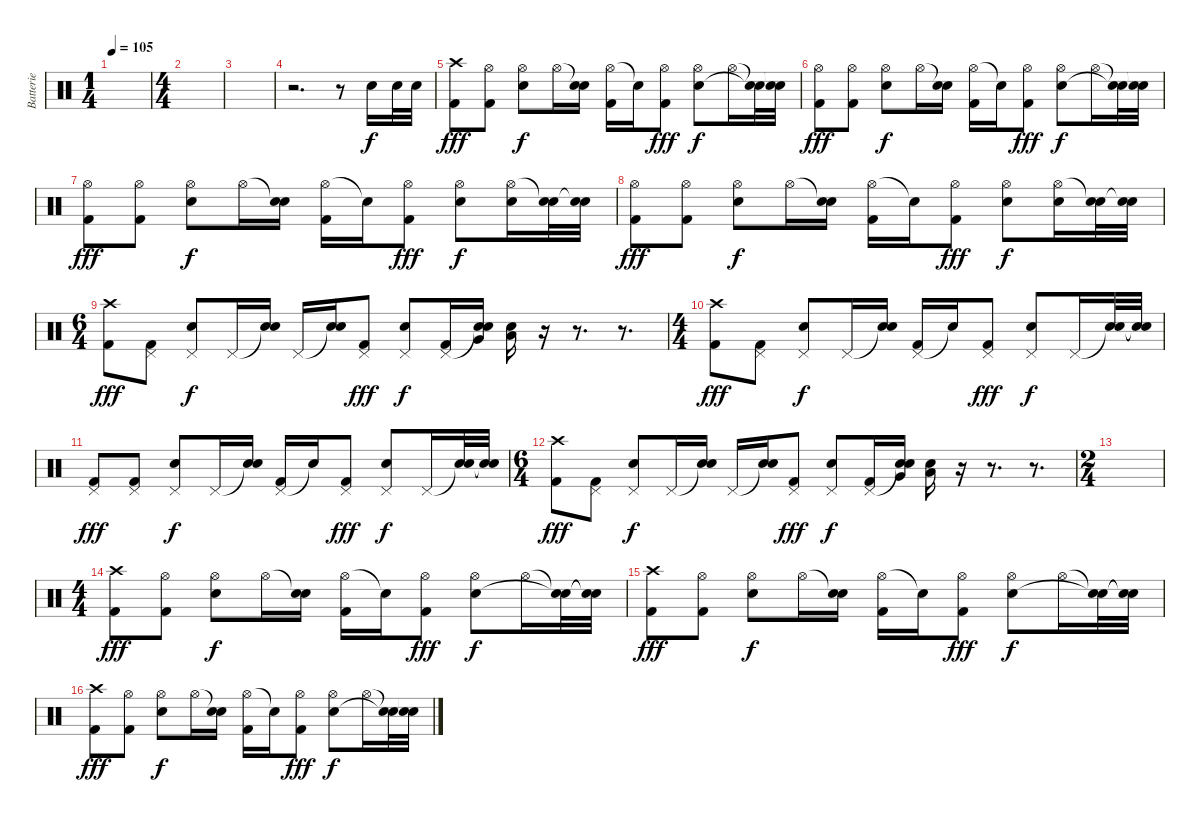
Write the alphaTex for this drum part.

\track ("Batterie" "Batterie") {instrument percussion}
\staff {score}
\articulation defaults
\ts (1 4)
\tempo 105
\clef neutral
\ks c
|
\ts (4 4)
|
|
r.2{d} r.8 "Electric Snare (hit)".16 "Electric Snare (hit)".32 "Electric Snare (hit)".32 |
("Crash high (hit)" "Kick (hit) 2").8{dy fff} ("Hi-Hat (open)" "Kick (hit) 2").8 ("Hi-Hat (open)" "Electric Snare (hit)").8{dy f} "Hi-Hat (open)".16 ("Snare (hit)"{t} "Electric Snare (hit)").16 ("Hi-Hat (open)" "Kick (hit) 2").16 "Snare (hit)"{t}.16 ("Hi-Hat (open)" "Kick (hit) 2").8{dy fff} ("Hi-Hat (open)" "Electric Snare (hit)").8{dy f} "Hi-Hat (open)".16 ("Snare (hit)"{t} "Snare (hit) 2"{t}).32 ("Snare (hit)"{t} "Snare (hit) 2"{t}).32 |
("Hi-Hat (open)" "Kick (hit) 2").8{dy fff} ("Hi-Hat (open)" "Kick (hit) 2").8 ("Hi-Hat (open)" "Electric Snare (hit)").8{dy f} "Hi-Hat (open)".16 ("Snare (hit)"{t} "Electric Snare (hit)").16 ("Hi-Hat (open)" "Kick (hit) 2").16 "Snare (hit)"{t}.16 ("Hi-Hat (open)" "Kick (hit) 2").8{dy fff} ("Hi-Hat (open)" "Electric Snare (hit)").8{dy f} "Hi-Hat (open)".16 ("Snare (hit)"{t} "Snare (hit) 2"{t}).32 ("Snare (hit)"{t} "Snare (hit) 2"{t}).32 |
("Hi-Hat (open)" "Kick (hit) 2").8{dy fff} ("Hi-Hat (open)" "Kick (hit) 2").8 ("Hi-Hat (open)" "Electric Snare (hit)").8{dy f} "Hi-Hat (open)".16 ("Snare (hit)"{t} "Electric Snare (hit)").16 ("Hi-Hat (open)" "Kick (hit) 2").16 "Snare (hit)"{t}.16 ("Hi-Hat (open)" "Kick (hit) 2").8{dy fff} ("Hi-Hat (open)" "Electric Snare (hit)").8{dy f} ("Hi-Hat (open)" "Electric Snare (hit)").16 ("Snare (hit)"{t} "Electric Snare (hit)").32 ("Snare (hit)"{t} "Electric Snare (hit)").32 |
("Hi-Hat (open)" "Kick (hit) 2").8{dy fff} ("Hi-Hat (open)" "Kick (hit) 2").8 ("Hi-Hat (open)" "Electric Snare (hit)").8{dy f} "Hi-Hat (open)".16 ("Snare (hit)"{t} "Electric Snare (hit)").16 ("Hi-Hat (open)" "Kick (hit) 2").16 "Snare (hit)"{t}.16 ("Hi-Hat (open)" "Kick (hit) 2").8{dy fff} ("Hi-Hat (open)" "Electric Snare (hit)").8{dy f} ("Hi-Hat (open)" "Electric Snare (hit)").16 ("Snare (hit)"{t} "Electric Snare (hit)").32 ("Snare (hit)"{t} "Electric Snare (hit)").32 |
\ts (6 4)
("Crash high (hit)" "Kick (hit) 2").8{dy fff} ("Pedal Hi-Hat (hit)" "Kick (hit) 2").8 ("Pedal Hi-Hat (hit)" "Electric Snare (hit)").8{dy f} "Pedal Hi-Hat (hit)".16 ("Snare (hit)"{t} "Electric Snare (hit)").16 "Pedal Hi-Hat (hit)".16 ("Snare (hit)"{t} "Electric Snare (hit)").16 ("Pedal Hi-Hat (hit)" "Kick (hit) 2").8{dy fff} ("Pedal Hi-Hat (hit)" "Electric Snare (hit)").8{dy f} ("Pedal Hi-Hat (hit)" "Kick (hit) 2").16 ("Electric Snare (hit)"{t} "Electric Snare (hit)" "Very Low Tom (hit)").16 ("Electric Snare (hit)" "Low Tom (hit)").16 r.16 r.8{d} r.8{d} |
\ts (4 4)
("Crash high (hit)" "Kick (hit) 2").8{dy fff} ("Pedal Hi-Hat (hit)" "Kick (hit) 2").8 ("Pedal Hi-Hat (hit)" "Electric Snare (hit)").8{dy f} "Pedal Hi-Hat (hit)".16 ("Snare (hit)"{t} "Electric Snare (hit)").16 ("Pedal Hi-Hat (hit)" "Kick (hit) 2").16 "Snare (hit)"{t}.16 ("Pedal Hi-Hat (hit)" "Kick (hit) 2").8{dy fff} ("Pedal Hi-Hat (hit)" "Electric Snare (hit)").8{dy f} "Pedal Hi-Hat (hit)".16 ("Snare (hit)"{t} "Electric Snare (hit)").32 ("Snare (hit)"{t} "Snare (hit) 2"{t}).32 |
("Pedal Hi-Hat (hit)" "Kick (hit) 2").8{dy fff} ("Pedal Hi-Hat (hit)" "Kick (hit) 2").8 ("Pedal Hi-Hat (hit)" "Electric Snare (hit)").8{dy f} "Pedal Hi-Hat (hit)".16 ("Snare (hit)"{t} "Electric Snare (hit)").16 ("Pedal Hi-Hat (hit)" "Kick (hit) 2").16 "Snare (hit)"{t}.16 ("Pedal Hi-Hat (hit)" "Kick (hit) 2").8{dy fff} ("Pedal Hi-Hat (hit)" "Electric Snare (hit)").8{dy f} "Pedal Hi-Hat (hit)".16 ("Snare (hit)"{t} "Electric Snare (hit)").32 ("Snare (hit)"{t} "Snare (hit) 2"{t}).32 |
\ts (6 4)
("Crash high (hit)" "Kick (hit) 2").8{dy fff} ("Pedal Hi-Hat (hit)" "Kick (hit) 2").8 ("Pedal Hi-Hat (hit)" "Electric Snare (hit)").8{dy f} "Pedal Hi-Hat (hit)".16 ("Snare (hit)"{t} "Electric Snare (hit)").16 "Pedal Hi-Hat (hit)".16 ("Snare (hit)"{t} "Electric Snare (hit)").16 ("Pedal Hi-Hat (hit)" "Kick (hit) 2").8{dy fff} ("Pedal Hi-Hat (hit)" "Electric Snare (hit)").8{dy f} ("Pedal Hi-Hat (hit)" "Kick (hit) 2").16 ("Electric Snare (hit)"{t} "Electric Snare (hit)" "Very Low Tom (hit)").16 ("Electric Snare (hit)" "Low Tom (hit)").16 r.16 r.8{d} r.8{d} |
\ts (2 4)
|
\ts (4 4)
("Crash high (hit)" "Kick (hit) 2").8{dy fff} ("Hi-Hat (open)" "Kick (hit) 2").8 ("Hi-Hat (open)" "Electric Snare (hit)").8{dy f} "Hi-Hat (open)".16 ("Snare (hit)"{t} "Electric Snare (hit)").16 ("Hi-Hat (open)" "Kick (hit) 2").16 "Snare (hit)"{t}.16 ("Hi-Hat (open)" "Kick (hit) 2").8{dy fff} ("Hi-Hat (open)" "Electric Snare (hit)").8{dy f} "Hi-Hat (open)".16 ("Snare (hit)"{t} "Snare (hit) 2"{t}).32 ("Snare (hit)"{t} "Snare (hit) 2"{t}).32 |
("Crash high (hit)" "Kick (hit) 2").8{dy fff} ("Hi-Hat (open)" "Kick (hit) 2").8 ("Hi-Hat (open)" "Electric Snare (hit)").8{dy f} "Hi-Hat (open)".16 ("Snare (hit)"{t} "Electric Snare (hit)").16 ("Hi-Hat (open)" "Kick (hit) 2").16 "Snare (hit)"{t}.16 ("Hi-Hat (open)" "Kick (hit) 2").8{dy fff} ("Hi-Hat (open)" "Electric Snare (hit)").8{dy f} "Hi-Hat (open)".16 ("Snare (hit)"{t} "Snare (hit) 2"{t}).32 ("Snare (hit)"{t} "Snare (hit) 2"{t}).32 |
("Crash high (hit)" "Kick (hit) 2").8{dy fff} ("Hi-Hat (open)" "Kick (hit) 2").8 ("Hi-Hat (open)" "Electric Snare (hit)").8{dy f} "Hi-Hat (open)".16 ("Snare (hit)"{t} "Electric Snare (hit)").16 ("Hi-Hat (open)" "Kick (hit) 2").16 "Snare (hit)"{t}.16 ("Hi-Hat (open)" "Kick (hit) 2").8{dy fff} ("Hi-Hat (open)" "Electric Snare (hit)").8{dy f} "Hi-Hat (open)".16 ("Snare (hit)"{t} "Snare (hit) 2"{t}).32 ("Snare (hit)"{t} "Snare (hit) 2"{t}).32
